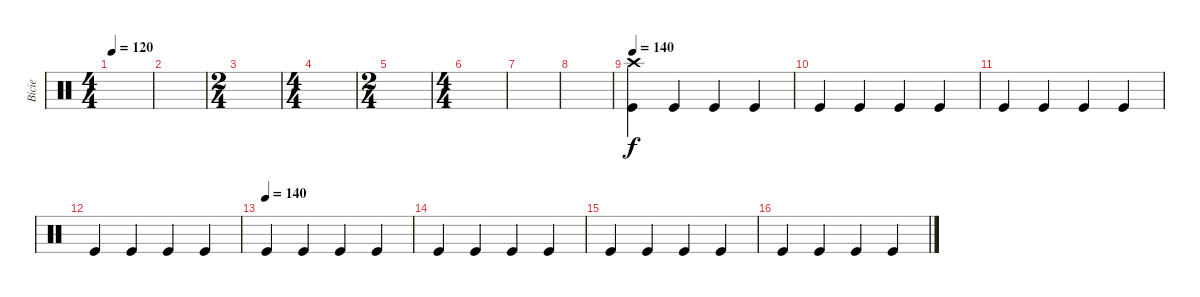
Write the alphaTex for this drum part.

\track ("Bicie" "Bicie") {instrument percussion}
\staff {score}
\articulation defaults
\ts (4 4)
\tempo 120
\clef neutral
\ks c
|
|
\ts (2 4)
|
\ts (4 4)
|
\ts (2 4)
|
\ts (4 4)
|
|
|
\tempo 140
("Crash high (hit)" "Kick (hit)").4 "Kick (hit)".4 "Kick (hit)".4 "Kick (hit)".4 |
"Kick (hit)".4 "Kick (hit)".4 "Kick (hit)".4 "Kick (hit)".4 |
"Kick (hit)".4 "Kick (hit)".4 "Kick (hit)".4 "Kick (hit)".4 |
"Kick (hit)".4 "Kick (hit)".4 "Kick (hit)".4 "Kick (hit)".4 |
\tempo (140)
"Kick (hit)".4 "Kick (hit)".4 "Kick (hit)".4 "Kick (hit)".4 |
"Kick (hit)".4 "Kick (hit)".4 "Kick (hit)".4 "Kick (hit)".4 |
"Kick (hit)".4 "Kick (hit)".4 "Kick (hit)".4 "Kick (hit)".4 |
"Kick (hit)".4 "Kick (hit)".4 "Kick (hit)".4 "Kick (hit)".4
